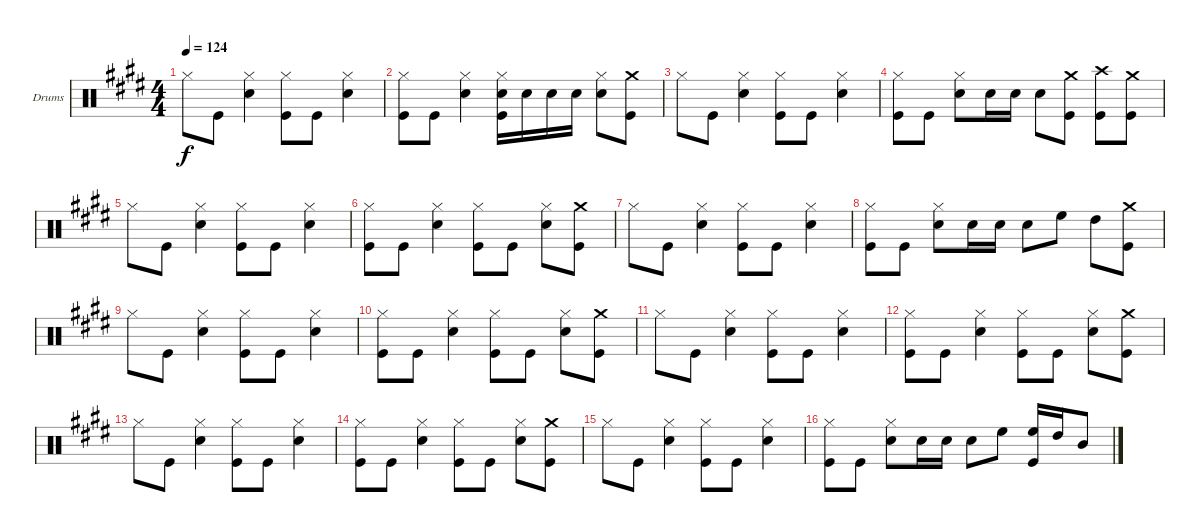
\defaultSystemsLayout 4
\bracketExtendMode groupsimilarinstruments
\firstSystemTrackNameOrientation horizontal
\otherSystemsTrackNameOrientation horizontal
\track ("Drumkit" "Drums") {instrument percussion}
\staff {score}
\articulation defaults
\ts (4 4)
\tempo 124
\clef neutral
\ks e "Hi-Hat (closed)".8{dy f} "Kick (hit)".8
("Hi-Hat (closed)" "Snare (hit) 2").4 ("Hi-Hat (closed)" "Kick (hit)").8 "Kick (hit)".8 ("Hi-Hat (closed)" "Snare (hit) 2").4 |
("Hi-Hat (closed)" "Kick (hit)").8 "Kick (hit)".8 ("Hi-Hat (closed)" "Snare (hit) 2").4 ("Hi-Hat (closed)" "Snare (hit) 2" "Kick (hit)").16 "Snare (hit) 2".16 "Snare (hit) 2".16 "Snare (hit) 2".16 ("Hi-Hat (closed)" "Snare (hit) 2").8 ("Crash medium (hit)" "Kick (hit)").8 |
"Hi-Hat (closed)".8 "Kick (hit)".8 ("Hi-Hat (closed)" "Snare (hit) 2").4 ("Hi-Hat (closed)" "Kick (hit)").8 "Kick (hit)".8 ("Hi-Hat (closed)" "Snare (hit) 2").4 |
("Hi-Hat (closed)" "Kick (hit)").8 "Kick (hit)".8 ("Hi-Hat (closed)" "Snare (hit) 2").8 "Snare (hit) 2".16 "Snare (hit) 2".16 "Snare (hit) 2".8 ("Crash medium (hit)" "Kick (hit)").8 ("Crash high (hit)" "Kick (hit)").8 ("Crash medium (hit)" "Kick (hit)").8 |
"Hi-Hat (closed)".8 "Kick (hit)".8 ("Hi-Hat (closed)" "Snare (hit) 2").4 ("Hi-Hat (closed)" "Kick (hit)").8 "Kick (hit)".8 ("Hi-Hat (closed)" "Snare (hit) 2").4 |
("Hi-Hat (closed)" "Kick (hit)").8 "Kick (hit)".8 ("Hi-Hat (closed)" "Snare (hit) 2").4 ("Hi-Hat (closed)" "Kick (hit)").8 "Kick (hit)".8 ("Hi-Hat (closed)" "Snare (hit) 2").8 ("Crash medium (hit)" "Kick (hit)").8 |
"Hi-Hat (closed)".8 "Kick (hit)".8 ("Hi-Hat (closed)" "Snare (hit) 2").4 ("Hi-Hat (closed)" "Kick (hit)").8 "Kick (hit)".8 ("Hi-Hat (closed)" "Snare (hit) 2").4 |
("Hi-Hat (closed)" "Kick (hit)").8 "Kick (hit)".8 ("Hi-Hat (closed)" "Snare (hit) 2").8 "Snare (hit) 2".16 "Snare (hit) 2".16 "Snare (hit) 2".8 "High Floor Tom (hit)".8 "High Tom (hit)".8 ("Crash medium (hit)" "Kick (hit)").8 |
"Hi-Hat (closed)".8 "Kick (hit)".8 ("Hi-Hat (closed)" "Snare (hit) 2").4 ("Hi-Hat (closed)" "Kick (hit)").8 "Kick (hit)".8 ("Hi-Hat (closed)" "Snare (hit) 2").4 |
("Hi-Hat (closed)" "Kick (hit)").8 "Kick (hit)".8 ("Hi-Hat (closed)" "Snare (hit) 2").4 ("Hi-Hat (closed)" "Kick (hit)").8 "Kick (hit)".8 ("Hi-Hat (closed)" "Snare (hit) 2").8 ("Crash medium (hit)" "Kick (hit)").8 |
"Hi-Hat (closed)".8 "Kick (hit)".8 ("Hi-Hat (closed)" "Snare (hit) 2").4 ("Hi-Hat (closed)" "Kick (hit)").8 "Kick (hit)".8 ("Hi-Hat (closed)" "Snare (hit) 2").4 |
("Hi-Hat (closed)" "Kick (hit)").8 "Kick (hit)".8 ("Hi-Hat (closed)" "Snare (hit) 2").4 ("Hi-Hat (closed)" "Kick (hit)").8 "Kick (hit)".8 ("Hi-Hat (closed)" "Snare (hit) 2").8 ("Crash medium (hit)" "Kick (hit)").8 |
"Hi-Hat (closed)".8 "Kick (hit)".8 ("Hi-Hat (closed)" "Snare (hit) 2").4 ("Hi-Hat (closed)" "Kick (hit)").8 "Kick (hit)".8 ("Hi-Hat (closed)" "Snare (hit) 2").4 |
("Hi-Hat (closed)" "Kick (hit)").8 "Kick (hit)".8 ("Hi-Hat (closed)" "Snare (hit) 2").4 ("Hi-Hat (closed)" "Kick (hit)").8 "Kick (hit)".8 ("Hi-Hat (closed)" "Snare (hit) 2").8 ("Crash medium (hit)" "Kick (hit)").8 |
"Hi-Hat (closed)".8 "Kick (hit)".8 ("Hi-Hat (closed)" "Snare (hit) 2").4 ("Hi-Hat (closed)" "Kick (hit)").8 "Kick (hit)".8 ("Hi-Hat (closed)" "Snare (hit) 2").4 |
("Hi-Hat (closed)" "Kick (hit)").8 "Kick (hit)".8 ("Hi-Hat (closed)" "Snare (hit) 2").8 "Snare (hit) 2".16 "Snare (hit) 2".16 "Snare (hit) 2".8 "High Floor Tom (hit)".8 ("High Floor Tom (hit)" "Kick (hit)").16 "High Tom (hit)".16 "Mid Tom (hit)".8
